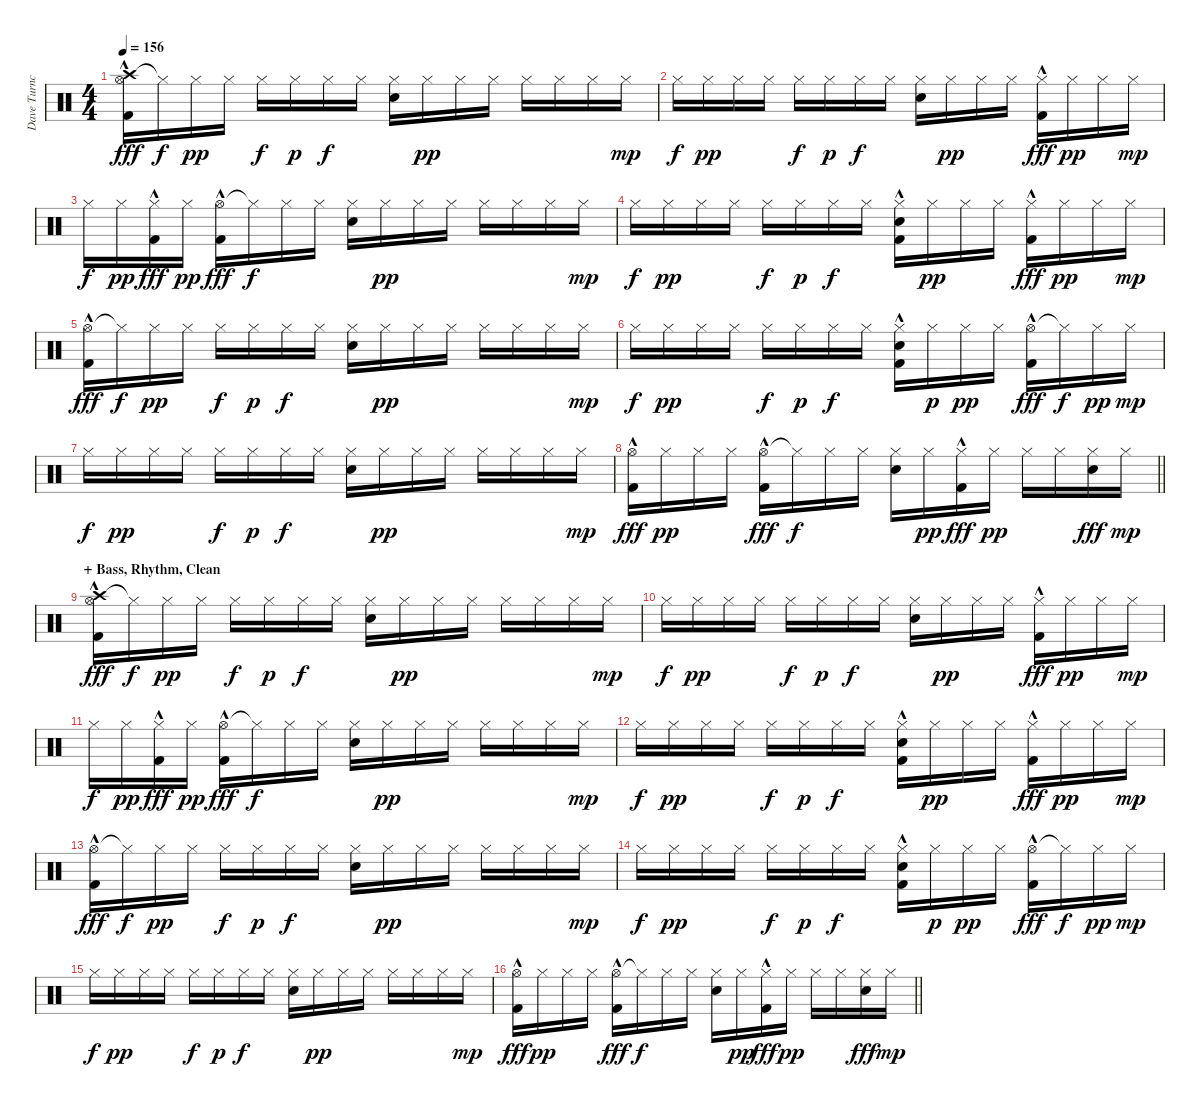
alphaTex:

\track ("Dave Turncrantz" "Dave Turnc") {instrument percussion}
\staff {score}
\articulation defaults
\ts (4 4)
\section ("" "")
\tempo 156
\clef neutral
\ks c
("Crash high (hit)" "Hi-Hat (open)" "Kick (hit) 2"{hac}).16{dy fff} "Hi-Hat (closed)"{t}.16{dy f} "Hi-Hat (closed)".16{dy pp} "Hi-Hat (closed)".16 "Hi-Hat (closed)".16{dy f} "Hi-Hat (closed)".16{dy p} "Hi-Hat (closed)".16{dy f} "Hi-Hat (closed)".16 ("Hi-Hat (closed)" "Electric Snare (hit)").16 "Hi-Hat (closed)".16{dy pp} "Hi-Hat (closed)".16 "Hi-Hat (closed)".16 "Hi-Hat (closed)".16 "Hi-Hat (closed)".16 "Hi-Hat (closed)".16 "Hi-Hat (closed)".16{dy mp} |
"Hi-Hat (closed)".16{dy f} "Hi-Hat (closed)".16{dy pp} "Hi-Hat (closed)".16 "Hi-Hat (closed)".16 "Hi-Hat (closed)".16{dy f} "Hi-Hat (closed)".16{dy p} "Hi-Hat (closed)".16{dy f} "Hi-Hat (closed)".16 ("Hi-Hat (closed)" "Electric Snare (hit)").16 "Hi-Hat (closed)".16{dy pp} "Hi-Hat (closed)".16 "Hi-Hat (closed)".16 ("Hi-Hat (closed)" "Kick (hit) 2"{hac}).16{dy fff} "Hi-Hat (closed)".16{dy pp} "Hi-Hat (closed)".16 "Hi-Hat (closed)".16{dy mp} |
"Hi-Hat (closed)".16{dy f} "Hi-Hat (closed)".16{dy pp} ("Hi-Hat (closed)" "Kick (hit) 2"{hac}).16{dy fff} "Hi-Hat (closed)".16{dy pp} ("Hi-Hat (open)" "Kick (hit) 2"{hac}).16{dy fff} "Hi-Hat (closed)"{t}.16{dy f} "Hi-Hat (closed)".16 "Hi-Hat (closed)".16 ("Hi-Hat (closed)" "Electric Snare (hit)").16 "Hi-Hat (closed)".16{dy pp} "Hi-Hat (closed)".16 "Hi-Hat (closed)".16 "Hi-Hat (closed)".16 "Hi-Hat (closed)".16 "Hi-Hat (closed)".16 "Hi-Hat (closed)".16{dy mp} |
"Hi-Hat (closed)".16{dy f} "Hi-Hat (closed)".16{dy pp} "Hi-Hat (closed)".16 "Hi-Hat (closed)".16 "Hi-Hat (closed)".16{dy f} "Hi-Hat (closed)".16{dy p} "Hi-Hat (closed)".16{dy f} "Hi-Hat (closed)".16 ("Hi-Hat (closed)" "Electric Snare (hit)" "Kick (hit) 2"{hac}).16 "Hi-Hat (closed)".16{dy pp} "Hi-Hat (closed)".16 "Hi-Hat (closed)".16 ("Hi-Hat (closed)" "Kick (hit) 2"{hac}).16{dy fff} "Hi-Hat (closed)".16{dy pp} "Hi-Hat (closed)".16 "Hi-Hat (closed)".16{dy mp} |
("Hi-Hat (open)" "Kick (hit) 2"{hac}).16{dy fff} "Hi-Hat (closed)"{t}.16{dy f} "Hi-Hat (closed)".16{dy pp} "Hi-Hat (closed)".16 "Hi-Hat (closed)".16{dy f} "Hi-Hat (closed)".16{dy p} "Hi-Hat (closed)".16{dy f} "Hi-Hat (closed)".16 ("Hi-Hat (closed)" "Electric Snare (hit)").16 "Hi-Hat (closed)".16{dy pp} "Hi-Hat (closed)".16 "Hi-Hat (closed)".16 "Hi-Hat (closed)".16 "Hi-Hat (closed)".16 "Hi-Hat (closed)".16 "Hi-Hat (closed)".16{dy mp} |
"Hi-Hat (closed)".16{dy f} "Hi-Hat (closed)".16{dy pp} "Hi-Hat (closed)".16 "Hi-Hat (closed)".16 "Hi-Hat (closed)".16{dy f} "Hi-Hat (closed)".16{dy p} "Hi-Hat (closed)".16{dy f} "Hi-Hat (closed)".16 ("Hi-Hat (closed)" "Electric Snare (hit)" "Kick (hit) 2"{hac}).16 "Hi-Hat (closed)".16{dy p} "Hi-Hat (closed)".16{dy pp} "Hi-Hat (closed)".16 ("Hi-Hat (open)" "Kick (hit) 2"{hac}).16{dy fff} "Hi-Hat (closed)"{t}.16{dy f} "Hi-Hat (closed)".16{dy pp} "Hi-Hat (closed)".16{dy mp} |
"Hi-Hat (closed)".16{dy f} "Hi-Hat (closed)".16{dy pp} "Hi-Hat (closed)".16 "Hi-Hat (closed)".16 "Hi-Hat (closed)".16{dy f} "Hi-Hat (closed)".16{dy p} "Hi-Hat (closed)".16{dy f} "Hi-Hat (closed)".16 ("Hi-Hat (closed)" "Electric Snare (hit)").16 "Hi-Hat (closed)".16{dy pp} "Hi-Hat (closed)".16 "Hi-Hat (closed)".16 "Hi-Hat (closed)".16 "Hi-Hat (closed)".16 "Hi-Hat (closed)".16 "Hi-Hat (closed)".16{dy mp} |
\barLineRight lightlight
("Hi-Hat (open)" "Kick (hit) 2"{hac}).16{dy fff} "Hi-Hat (closed)".16{dy pp} "Hi-Hat (closed)".16 "Hi-Hat (closed)".16 ("Hi-Hat (open)" "Kick (hit) 2"{hac}).16{dy fff} "Hi-Hat (closed)"{t}.16{dy f} "Hi-Hat (closed)".16 "Hi-Hat (closed)".16 ("Hi-Hat (closed)" "Electric Snare (hit)").16 "Hi-Hat (closed)".16{dy pp} ("Hi-Hat (closed)" "Kick (hit) 2"{hac}).16{dy fff} "Hi-Hat (closed)".16{dy pp} "Hi-Hat (closed)".16 "Hi-Hat (closed)".16 ("Hi-Hat (closed)" "Electric Snare (hit)").16{dy fff} "Hi-Hat (closed)".16{dy mp} |
\section ("" "+ Bass, Rhythm, Clean")
("Crash high (hit)" "Hi-Hat (open)" "Kick (hit) 2"{hac}).16{dy fff} "Hi-Hat (closed)"{t}.16{dy f} "Hi-Hat (closed)".16{dy pp} "Hi-Hat (closed)".16 "Hi-Hat (closed)".16{dy f} "Hi-Hat (closed)".16{dy p} "Hi-Hat (closed)".16{dy f} "Hi-Hat (closed)".16 ("Hi-Hat (closed)" "Electric Snare (hit)").16 "Hi-Hat (closed)".16{dy pp} "Hi-Hat (closed)".16 "Hi-Hat (closed)".16 "Hi-Hat (closed)".16 "Hi-Hat (closed)".16 "Hi-Hat (closed)".16 "Hi-Hat (closed)".16{dy mp} |
"Hi-Hat (closed)".16{dy f} "Hi-Hat (closed)".16{dy pp} "Hi-Hat (closed)".16 "Hi-Hat (closed)".16 "Hi-Hat (closed)".16{dy f} "Hi-Hat (closed)".16{dy p} "Hi-Hat (closed)".16{dy f} "Hi-Hat (closed)".16 ("Hi-Hat (closed)" "Electric Snare (hit)").16 "Hi-Hat (closed)".16{dy pp} "Hi-Hat (closed)".16 "Hi-Hat (closed)".16 ("Hi-Hat (closed)" "Kick (hit) 2"{hac}).16{dy fff} "Hi-Hat (closed)".16{dy pp} "Hi-Hat (closed)".16 "Hi-Hat (closed)".16{dy mp} |
"Hi-Hat (closed)".16{dy f} "Hi-Hat (closed)".16{dy pp} ("Hi-Hat (closed)" "Kick (hit) 2"{hac}).16{dy fff} "Hi-Hat (closed)".16{dy pp} ("Hi-Hat (open)" "Kick (hit) 2"{hac}).16{dy fff} "Hi-Hat (closed)"{t}.16{dy f} "Hi-Hat (closed)".16 "Hi-Hat (closed)".16 ("Hi-Hat (closed)" "Electric Snare (hit)").16 "Hi-Hat (closed)".16{dy pp} "Hi-Hat (closed)".16 "Hi-Hat (closed)".16 "Hi-Hat (closed)".16 "Hi-Hat (closed)".16 "Hi-Hat (closed)".16 "Hi-Hat (closed)".16{dy mp} |
"Hi-Hat (closed)".16{dy f} "Hi-Hat (closed)".16{dy pp} "Hi-Hat (closed)".16 "Hi-Hat (closed)".16 "Hi-Hat (closed)".16{dy f} "Hi-Hat (closed)".16{dy p} "Hi-Hat (closed)".16{dy f} "Hi-Hat (closed)".16 ("Hi-Hat (closed)" "Electric Snare (hit)" "Kick (hit) 2"{hac}).16 "Hi-Hat (closed)".16{dy pp} "Hi-Hat (closed)".16 "Hi-Hat (closed)".16 ("Hi-Hat (closed)" "Kick (hit) 2"{hac}).16{dy fff} "Hi-Hat (closed)".16{dy pp} "Hi-Hat (closed)".16 "Hi-Hat (closed)".16{dy mp} |
("Hi-Hat (open)" "Kick (hit) 2"{hac}).16{dy fff} "Hi-Hat (closed)"{t}.16{dy f} "Hi-Hat (closed)".16{dy pp} "Hi-Hat (closed)".16 "Hi-Hat (closed)".16{dy f} "Hi-Hat (closed)".16{dy p} "Hi-Hat (closed)".16{dy f} "Hi-Hat (closed)".16 ("Hi-Hat (closed)" "Electric Snare (hit)").16 "Hi-Hat (closed)".16{dy pp} "Hi-Hat (closed)".16 "Hi-Hat (closed)".16 "Hi-Hat (closed)".16 "Hi-Hat (closed)".16 "Hi-Hat (closed)".16 "Hi-Hat (closed)".16{dy mp} |
"Hi-Hat (closed)".16{dy f} "Hi-Hat (closed)".16{dy pp} "Hi-Hat (closed)".16 "Hi-Hat (closed)".16 "Hi-Hat (closed)".16{dy f} "Hi-Hat (closed)".16{dy p} "Hi-Hat (closed)".16{dy f} "Hi-Hat (closed)".16 ("Hi-Hat (closed)" "Electric Snare (hit)" "Kick (hit) 2"{hac}).16 "Hi-Hat (closed)".16{dy p} "Hi-Hat (closed)".16{dy pp} "Hi-Hat (closed)".16 ("Hi-Hat (open)" "Kick (hit) 2"{hac}).16{dy fff} "Hi-Hat (closed)"{t}.16{dy f} "Hi-Hat (closed)".16{dy pp} "Hi-Hat (closed)".16{dy mp} |
"Hi-Hat (closed)".16{dy f} "Hi-Hat (closed)".16{dy pp} "Hi-Hat (closed)".16 "Hi-Hat (closed)".16 "Hi-Hat (closed)".16{dy f} "Hi-Hat (closed)".16{dy p} "Hi-Hat (closed)".16{dy f} "Hi-Hat (closed)".16 ("Hi-Hat (closed)" "Electric Snare (hit)").16 "Hi-Hat (closed)".16{dy pp} "Hi-Hat (closed)".16 "Hi-Hat (closed)".16 "Hi-Hat (closed)".16 "Hi-Hat (closed)".16 "Hi-Hat (closed)".16 "Hi-Hat (closed)".16{dy mp} |
\barLineRight lightlight
("Hi-Hat (open)" "Kick (hit) 2"{hac}).16{dy fff} "Hi-Hat (closed)".16{dy pp} "Hi-Hat (closed)".16 "Hi-Hat (closed)".16 ("Hi-Hat (open)" "Kick (hit) 2"{hac}).16{dy fff} "Hi-Hat (closed)"{t}.16{dy f} "Hi-Hat (closed)".16 "Hi-Hat (closed)".16 ("Hi-Hat (closed)" "Electric Snare (hit)").16 "Hi-Hat (closed)".16{dy pp} ("Hi-Hat (closed)" "Kick (hit) 2"{hac}).16{dy fff} "Hi-Hat (closed)".16{dy pp} "Hi-Hat (closed)".16 "Hi-Hat (closed)".16 ("Hi-Hat (closed)" "Electric Snare (hit)").16{dy fff} "Hi-Hat (closed)".16{dy mp}
